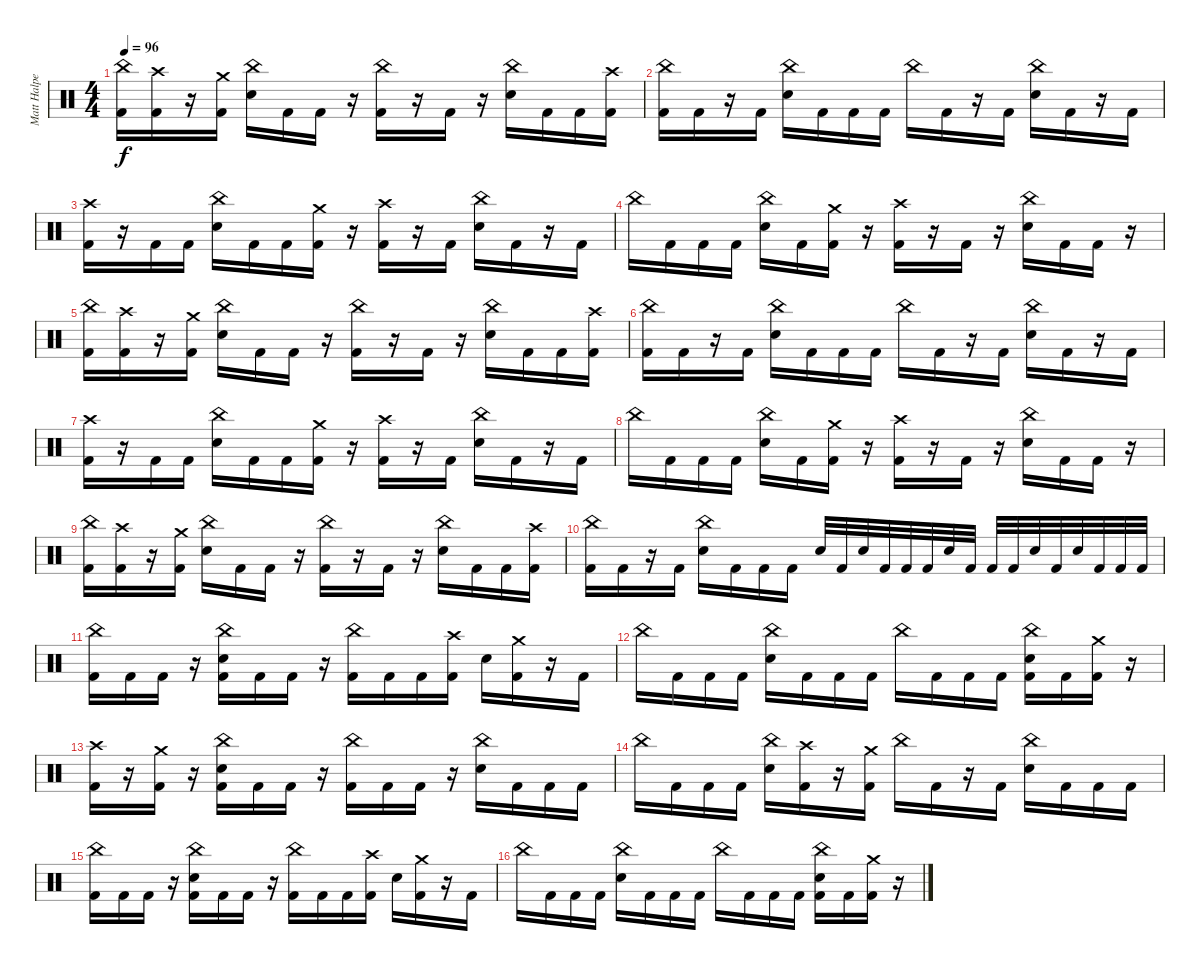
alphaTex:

\track ("Matt Halpern" "Matt Halpe") {instrument percussion}
\staff {score}
\articulation defaults
\ts (4 4)
\tempo 96
\clef neutral
\ks c
("China (hit)" "Kick (hit) 2").16{dy f} ("Crash high (hit)" "Kick (hit) 2").16 r.16 ("Crash medium (hit)" "Kick (hit) 2").16 ("China (hit)" "Snare (hit) 2").16 "Kick (hit) 2".16 "Kick (hit) 2".16 r.16 ("China (hit)" "Kick (hit) 2").16 r.16 "Kick (hit) 2".16 r.16 ("China (hit)" "Snare (hit) 2").16 "Kick (hit) 2".16 "Kick (hit) 2".16 ("Crash high (hit)" "Kick (hit) 2").16 |
("China (hit)" "Kick (hit) 2").16 "Kick (hit) 2".16 r.16 "Kick (hit) 2".16 ("China (hit)" "Snare (hit) 2").16 "Kick (hit) 2".16 "Kick (hit) 2".16 "Kick (hit) 2".16 "China (hit)".16 "Kick (hit) 2".16 r.16 "Kick (hit) 2".16 ("China (hit)" "Snare (hit) 2").16 "Kick (hit) 2".16 r.16 "Kick (hit) 2".16 |
("Crash high (hit)" "Kick (hit) 2").16 r.16 "Kick (hit) 2".16 "Kick (hit) 2".16 ("China (hit)" "Snare (hit) 2").16 "Kick (hit) 2".16 "Kick (hit) 2".16 ("Crash medium (hit)" "Kick (hit) 2").16 r.16 ("Crash high (hit)" "Kick (hit) 2").16 r.16 "Kick (hit) 2".16 ("China (hit)" "Snare (hit) 2").16 "Kick (hit) 2".16 r.16 "Kick (hit) 2".16 |
"China (hit)".16 "Kick (hit) 2".16 "Kick (hit) 2".16 "Kick (hit) 2".16 ("China (hit)" "Snare (hit) 2").16 "Kick (hit) 2".16 ("Crash medium (hit)" "Kick (hit) 2").16 r.16 ("Crash high (hit)" "Kick (hit) 2").16 r.16 "Kick (hit) 2".16 r.16 ("China (hit)" "Snare (hit) 2").16 "Kick (hit) 2".16 "Kick (hit) 2".16 r.16 |
("China (hit)" "Kick (hit) 2").16 ("Crash high (hit)" "Kick (hit) 2").16 r.16 ("Crash medium (hit)" "Kick (hit) 2").16 ("China (hit)" "Snare (hit) 2").16 "Kick (hit) 2".16 "Kick (hit) 2".16 r.16 ("China (hit)" "Kick (hit) 2").16 r.16 "Kick (hit) 2".16 r.16 ("China (hit)" "Snare (hit) 2").16 "Kick (hit) 2".16 "Kick (hit) 2".16 ("Crash high (hit)" "Kick (hit) 2").16 |
("China (hit)" "Kick (hit) 2").16 "Kick (hit) 2".16 r.16 "Kick (hit) 2".16 ("China (hit)" "Snare (hit) 2").16 "Kick (hit) 2".16 "Kick (hit) 2".16 "Kick (hit) 2".16 "China (hit)".16 "Kick (hit) 2".16 r.16 "Kick (hit) 2".16 ("China (hit)" "Snare (hit) 2").16 "Kick (hit) 2".16 r.16 "Kick (hit) 2".16 |
("Crash high (hit)" "Kick (hit) 2").16 r.16 "Kick (hit) 2".16 "Kick (hit) 2".16 ("China (hit)" "Snare (hit) 2").16 "Kick (hit) 2".16 "Kick (hit) 2".16 ("Crash medium (hit)" "Kick (hit) 2").16 r.16 ("Crash high (hit)" "Kick (hit) 2").16 r.16 "Kick (hit) 2".16 ("China (hit)" "Snare (hit) 2").16 "Kick (hit) 2".16 r.16 "Kick (hit) 2".16 |
"China (hit)".16 "Kick (hit) 2".16 "Kick (hit) 2".16 "Kick (hit) 2".16 ("China (hit)" "Snare (hit) 2").16 "Kick (hit) 2".16 ("Crash medium (hit)" "Kick (hit) 2").16 r.16 ("Crash high (hit)" "Kick (hit) 2").16 r.16 "Kick (hit) 2".16 r.16 ("China (hit)" "Snare (hit) 2").16 "Kick (hit) 2".16 "Kick (hit) 2".16 r.16 |
("China (hit)" "Kick (hit) 2").16 ("Crash high (hit)" "Kick (hit) 2").16 r.16 ("Crash medium (hit)" "Kick (hit) 2").16 ("China (hit)" "Snare (hit) 2").16 "Kick (hit) 2".16 "Kick (hit) 2".16 r.16 ("China (hit)" "Kick (hit) 2").16 r.16 "Kick (hit) 2".16 r.16 ("China (hit)" "Snare (hit) 2").16 "Kick (hit) 2".16 "Kick (hit) 2".16 ("Crash high (hit)" "Kick (hit) 2").16 |
("China (hit)" "Kick (hit) 2").16 "Kick (hit) 2".16 r.16 "Kick (hit) 2".16 ("China (hit)" "Snare (hit) 2").16 "Kick (hit) 2".16 "Kick (hit) 2".16 "Kick (hit) 2".16 "Snare (hit) 2".32 "Kick (hit) 2".32 "Snare (hit) 2".32 "Kick (hit) 2".32 "Kick (hit) 2".32 "Kick (hit) 2".32 "Snare (hit) 2".32 "Kick (hit) 2".32 "Kick (hit) 2".32 "Kick (hit) 2".32 "Snare (hit) 2".32 "Kick (hit) 2".32 "Snare (hit) 2".32 "Kick (hit) 2".32 "Kick (hit) 2".32 "Kick (hit) 2".32 |
("China (hit)" "Kick (hit) 2").16 "Kick (hit) 2".16 "Kick (hit) 2".16 r.16 ("China (hit)" "Snare (hit) 2" "Kick (hit) 2").16 "Kick (hit) 2".16 "Kick (hit) 2".16 r.16 ("China (hit)" "Kick (hit) 2").16 "Kick (hit) 2".16 "Kick (hit) 2".16 ("Crash high (hit)" "Kick (hit) 2").16 "Snare (hit) 2".16 ("Crash medium (hit)" "Kick (hit) 2").16 r.16 "Kick (hit) 2".16 |
"China (hit)".16 "Kick (hit) 2".16 "Kick (hit) 2".16 "Kick (hit) 2".16 ("China (hit)" "Snare (hit) 2").16 "Kick (hit) 2".16 "Kick (hit) 2".16 "Kick (hit) 2".16 "China (hit)".16 "Kick (hit) 2".16 "Kick (hit) 2".16 "Kick (hit) 2".16 ("China (hit)" "Snare (hit) 2" "Kick (hit) 2").16 "Kick (hit) 2".16 ("Crash medium (hit)" "Kick (hit) 2").16 r.16 |
("Crash high (hit)" "Kick (hit) 2").16 r.16 ("Crash medium (hit)" "Kick (hit) 2").16 r.16 ("China (hit)" "Snare (hit) 2" "Kick (hit) 2").16 "Kick (hit) 2".16 "Kick (hit) 2".16 r.16 ("China (hit)" "Kick (hit) 2").16 "Kick (hit) 2".16 "Kick (hit) 2".16 r.16 ("China (hit)" "Snare (hit) 2").16 "Kick (hit) 2".16 "Kick (hit) 2".16 "Kick (hit) 2".16 |
"China (hit)".16 "Kick (hit) 2".16 "Kick (hit) 2".16 "Kick (hit) 2".16 ("China (hit)" "Snare (hit) 2").16 ("Crash high (hit)" "Kick (hit) 2").16 r.16 ("Crash medium (hit)" "Kick (hit) 2").16 "China (hit)".16 "Kick (hit) 2".16 r.16 "Kick (hit) 2".16 ("China (hit)" "Snare (hit) 2").16 "Kick (hit) 2".16 "Kick (hit) 2".16 "Kick (hit) 2".16 |
("China (hit)" "Kick (hit) 2").16 "Kick (hit) 2".16 "Kick (hit) 2".16 r.16 ("China (hit)" "Snare (hit) 2" "Kick (hit) 2").16 "Kick (hit) 2".16 "Kick (hit) 2".16 r.16 ("China (hit)" "Kick (hit) 2").16 "Kick (hit) 2".16 "Kick (hit) 2".16 ("Crash high (hit)" "Kick (hit) 2").16 "Snare (hit) 2".16 ("Crash medium (hit)" "Kick (hit) 2").16 r.16 "Kick (hit) 2".16 |
"China (hit)".16 "Kick (hit) 2".16 "Kick (hit) 2".16 "Kick (hit) 2".16 ("China (hit)" "Snare (hit) 2").16 "Kick (hit) 2".16 "Kick (hit) 2".16 "Kick (hit) 2".16 "China (hit)".16 "Kick (hit) 2".16 "Kick (hit) 2".16 "Kick (hit) 2".16 ("China (hit)" "Snare (hit) 2" "Kick (hit) 2").16 "Kick (hit) 2".16 ("Crash medium (hit)" "Kick (hit) 2").16 r.16
